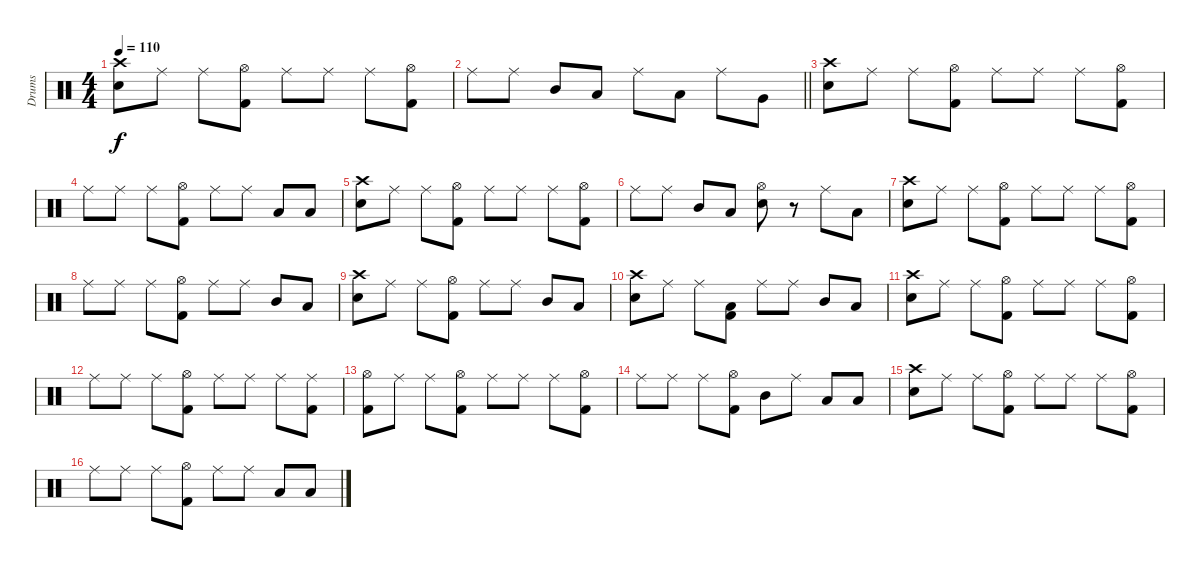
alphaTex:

\track ("Drums" "Drums") {instrument percussion}
\staff {score}
\articulation defaults
\ts (4 4)
\tempo 110
\clef neutral
\ks c
("Crash high (hit)" "Snare (hit) 2").8{dy f} "Ride (middle)".8 "Ride (middle)".8 ("Hi-Hat (open)" "Kick (hit) 2").8 "Ride (middle)".8 "Ride (middle)".8 "Ride (middle)".8 ("Hi-Hat (open)" "Kick (hit) 2").8 |
\barLineRight lightlight "Ride (middle)".8 "Ride (middle)".8 "Mid Tom (hit)".8 "Low Tom (hit)".8 "Ride (middle)".8 "Low Tom (hit)".8 "Ride (middle)".8 "Very Low Tom (hit)".8
|
("Crash high (hit)" "Snare (hit) 2").8 "Ride (middle)".8 "Ride (middle)".8 ("Hi-Hat (open)" "Kick (hit) 2").8 "Ride (middle)".8 "Ride (middle)".8 "Ride (middle)".8 ("Hi-Hat (open)" "Kick (hit) 2").8 |
"Ride (middle)".8 "Ride (middle)".8 "Ride (middle)".8 ("Hi-Hat (open)" "Kick (hit) 2").8 "Ride (middle)".8 "Ride (middle)".8 "Low Floor Tom (hit)".8 "Low Floor Tom (hit)".8 |
("Crash high (hit)" "Snare (hit) 2").8 "Ride (middle)".8 "Ride (middle)".8 ("Hi-Hat (open)" "Kick (hit) 2").8 "Ride (middle)".8 "Ride (middle)".8 "Ride (middle)".8 ("Hi-Hat (open)" "Kick (hit) 2").8 |
"Ride (middle)".8 "Ride (middle)".8 "Mid Tom (hit)".8 "Low Tom (hit)".8 ("Hi-Hat (open)" "Snare (hit) 2").8 r.8 "Ride (middle)".8 "Low Floor Tom (hit)".8 |
("Crash high (hit)" "Snare (hit) 2").8 "Ride (middle)".8 "Ride (middle)".8 ("Hi-Hat (open)" "Kick (hit) 2").8 "Ride (middle)".8 "Ride (middle)".8 "Ride (middle)".8 ("Hi-Hat (open)" "Kick (hit) 2").8 |
"Ride (middle)".8 "Ride (middle)".8 "Ride (middle)".8 ("Hi-Hat (open)" "Kick (hit) 2").8 "Ride (middle)".8 "Ride (middle)".8 "Mid Tom (hit)".8 "Low Tom (hit)".8 |
("Crash high (hit)" "Snare (hit) 2").8 "Ride (middle)".8 "Ride (middle)".8 ("Hi-Hat (open)" "Kick (hit) 2").8 "Ride (middle)".8 "Ride (middle)".8 "Mid Tom (hit)".8 "Low Tom (hit)".8 |
("Crash high (hit)" "Snare (hit) 2").8 "Ride (middle)".8 "Ride (middle)".8 ("Low Floor Tom (hit)" "Kick (hit) 2").8 "Ride (middle)".8 "Ride (middle)".8 "Mid Tom (hit)".8 "Low Tom (hit)".8 |
("Crash high (hit)" "Snare (hit) 2").8 "Ride (middle)".8 "Ride (middle)".8 ("Hi-Hat (open)" "Kick (hit) 2").8 "Ride (middle)".8 "Ride (middle)".8 "Ride (middle)".8 ("Hi-Hat (open)" "Kick (hit) 2").8 |
"Ride (middle)".8 "Ride (middle)".8 "Ride (middle)".8 ("Hi-Hat (open)" "Kick (hit) 2").8 "Ride (middle)".8 "Ride (middle)".8 "Ride (middle)".8 ("Ride (middle)" "Kick (hit) 2").8 |
("Hi-Hat (open)" "Kick (hit) 2").8 "Ride (middle)".8 "Ride (middle)".8 ("Hi-Hat (open)" "Kick (hit) 2").8 "Ride (middle)".8 "Ride (middle)".8 "Ride (middle)".8 ("Hi-Hat (open)" "Kick (hit) 2").8 |
"Ride (middle)".8 "Ride (middle)".8 "Ride (middle)".8 ("Hi-Hat (open)" "Kick (hit) 2").8 "Mid Tom (hit)".8 "Ride (middle)".8 "Low Floor Tom (hit)".8 "Low Floor Tom (hit)".8 |
("Crash high (hit)" "Snare (hit) 2").8 "Ride (middle)".8 "Ride (middle)".8 ("Hi-Hat (open)" "Kick (hit) 2").8 "Ride (middle)".8 "Ride (middle)".8 "Ride (middle)".8 ("Hi-Hat (open)" "Kick (hit) 2").8 |
"Ride (middle)".8 "Ride (middle)".8 "Ride (middle)".8 ("Hi-Hat (open)" "Kick (hit) 2").8 "Ride (middle)".8 "Ride (middle)".8 "Low Floor Tom (hit)".8 "Low Floor Tom (hit)".8
